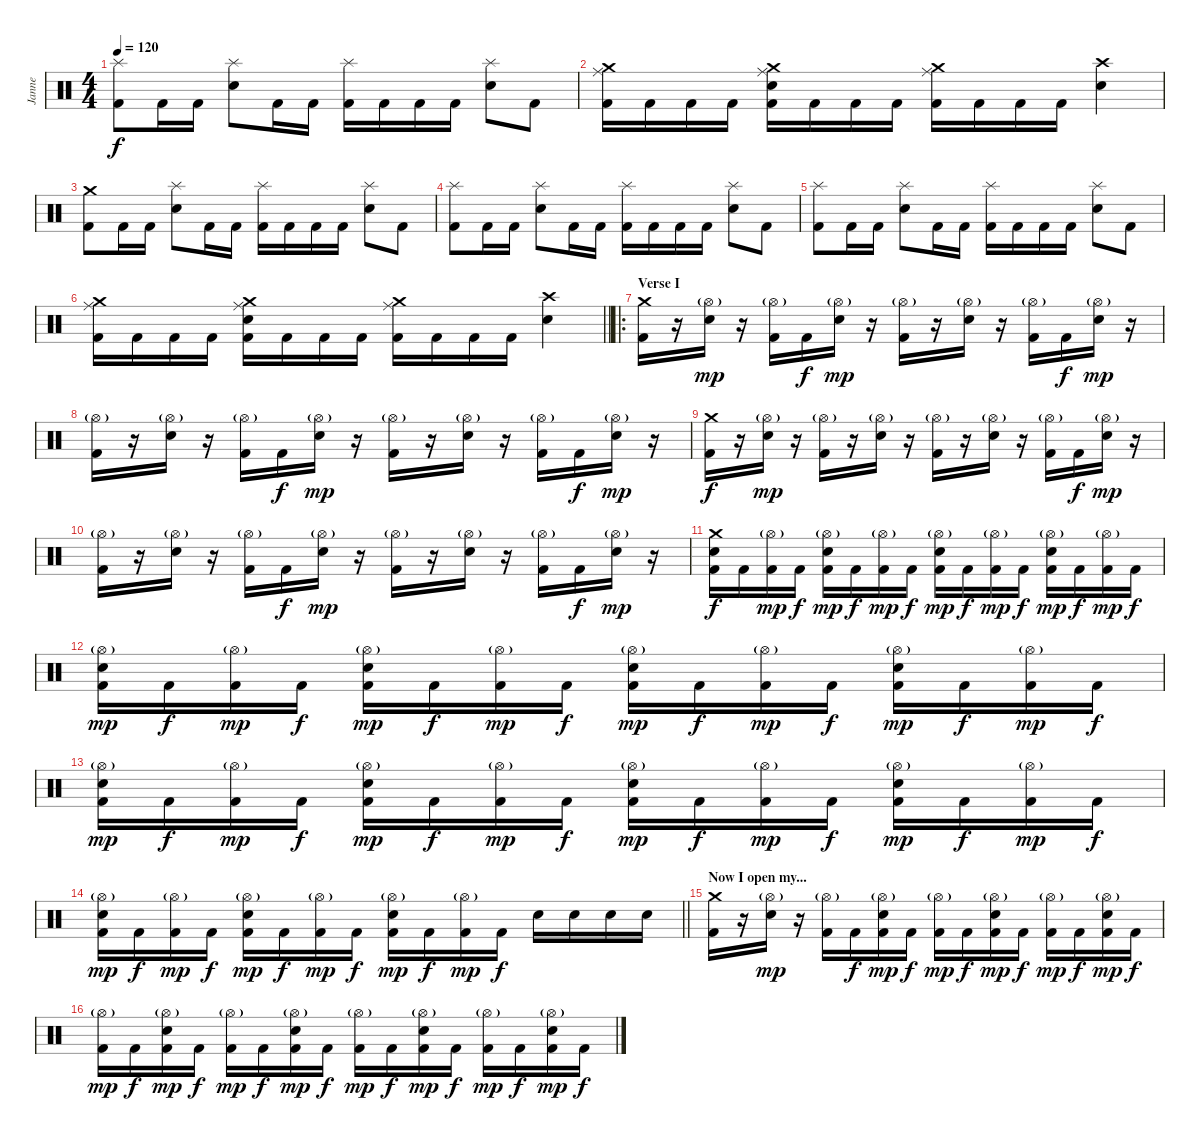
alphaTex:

\track ("Janne" "Janne") {instrument percussion}
\staff {score}
\articulation defaults
\ts (4 4)
\tempo 120
\clef neutral
\ks c
("Kick (hit) 2" "Splash (hit)").8{dy f} "Kick (hit) 2".16 "Kick (hit) 2".16 ("Snare (hit) 2" "Splash (hit)").8 "Kick (hit) 2".16 "Kick (hit) 2".16 ("Kick (hit) 2" "Splash (hit)").16 "Kick (hit) 2".16 "Kick (hit) 2".16 "Kick (hit) 2".16 ("Snare (hit) 2" "Splash (hit)").8 "Kick (hit) 2".8 |
("Kick (hit) 2" "Crash medium (hit)" "Ride (middle)").16 "Kick (hit) 2".16 "Kick (hit) 2".16 "Kick (hit) 2".16 ("Kick (hit) 2" "Snare (hit) 2" "Crash medium (hit)" "Ride (middle)").16 "Kick (hit) 2".16 "Kick (hit) 2".16 "Kick (hit) 2".16 ("Kick (hit) 2" "Crash medium (hit)" "Ride (middle)").16 "Kick (hit) 2".16 "Kick (hit) 2".16 "Kick (hit) 2".16 ("Snare (hit) 2" "Crash high (hit)").4 |
("Kick (hit) 2" "Crash medium (hit)").8 "Kick (hit) 2".16 "Kick (hit) 2".16 ("Snare (hit) 2" "Splash (hit)").8 "Kick (hit) 2".16 "Kick (hit) 2".16 ("Kick (hit) 2" "Splash (hit)").16 "Kick (hit) 2".16 "Kick (hit) 2".16 "Kick (hit) 2".16 ("Snare (hit) 2" "Splash (hit)").8 "Kick (hit) 2".8 |
("Kick (hit) 2" "Splash (hit)").8 "Kick (hit) 2".16 "Kick (hit) 2".16 ("Snare (hit) 2" "Splash (hit)").8 "Kick (hit) 2".16 "Kick (hit) 2".16 ("Kick (hit) 2" "Splash (hit)").16 "Kick (hit) 2".16 "Kick (hit) 2".16 "Kick (hit) 2".16 ("Snare (hit) 2" "Splash (hit)").8 "Kick (hit) 2".8 |
("Kick (hit) 2" "Splash (hit)").8 "Kick (hit) 2".16 "Kick (hit) 2".16 ("Snare (hit) 2" "Splash (hit)").8 "Kick (hit) 2".16 "Kick (hit) 2".16 ("Kick (hit) 2" "Splash (hit)").16 "Kick (hit) 2".16 "Kick (hit) 2".16 "Kick (hit) 2".16 ("Snare (hit) 2" "Splash (hit)").8 "Kick (hit) 2".8 |
\barLineRight lightlight
("Kick (hit) 2" "Crash medium (hit)" "Ride (middle)").16 "Kick (hit) 2".16 "Kick (hit) 2".16 "Kick (hit) 2".16 ("Kick (hit) 2" "Snare (hit) 2" "Crash medium (hit)" "Ride (middle)").16 "Kick (hit) 2".16 "Kick (hit) 2".16 "Kick (hit) 2".16 ("Kick (hit) 2" "Crash medium (hit)" "Ride (middle)").16 "Kick (hit) 2".16 "Kick (hit) 2".16 "Kick (hit) 2".16 ("Snare (hit) 2" "Crash high (hit)").4 |
\ro
\section ("" "Verse I")
("Kick (hit) 2" "Crash medium (hit)").16 r.16 ("Snare (hit) 2" "Hi-Hat (open)"{g}).16{dy mp} r.16 ("Kick (hit) 2" "Hi-Hat (open)"{g}).16 "Kick (hit) 2".16{dy f} ("Snare (hit) 2" "Hi-Hat (open)"{g}).16{dy mp} r.16 ("Kick (hit) 2" "Hi-Hat (open)"{g}).16 r.16 ("Snare (hit) 2" "Hi-Hat (open)"{g}).16 r.16 ("Kick (hit) 2" "Hi-Hat (open)"{g}).16 "Kick (hit) 2".16{dy f} ("Snare (hit) 2" "Hi-Hat (open)"{g}).16{dy mp} r.16 |
("Kick (hit) 2" "Hi-Hat (open)"{g}).16 r.16 ("Snare (hit) 2" "Hi-Hat (open)"{g}).16 r.16 ("Kick (hit) 2" "Hi-Hat (open)"{g}).16 "Kick (hit) 2".16{dy f} ("Snare (hit) 2" "Hi-Hat (open)"{g}).16{dy mp} r.16 ("Kick (hit) 2" "Hi-Hat (open)"{g}).16 r.16 ("Snare (hit) 2" "Hi-Hat (open)"{g}).16 r.16 ("Kick (hit) 2" "Hi-Hat (open)"{g}).16 "Kick (hit) 2".16{dy f} ("Snare (hit) 2" "Hi-Hat (open)"{g}).16{dy mp} r.16 |
("Kick (hit) 2" "Crash medium (hit)").16{dy f} r.16 ("Snare (hit) 2" "Hi-Hat (open)"{g}).16{dy mp} r.16 ("Kick (hit) 2" "Hi-Hat (open)"{g}).16 r.16 ("Snare (hit) 2" "Hi-Hat (open)"{g}).16 r.16 ("Kick (hit) 2" "Hi-Hat (open)"{g}).16 r.16 ("Snare (hit) 2" "Hi-Hat (open)"{g}).16 r.16 ("Kick (hit) 2" "Hi-Hat (open)"{g}).16 "Kick (hit) 2".16{dy f} ("Snare (hit) 2" "Hi-Hat (open)"{g}).16{dy mp} r.16 |
("Kick (hit) 2" "Hi-Hat (open)"{g}).16 r.16 ("Snare (hit) 2" "Hi-Hat (open)"{g}).16 r.16 ("Kick (hit) 2" "Hi-Hat (open)"{g}).16 "Kick (hit) 2".16{dy f} ("Snare (hit) 2" "Hi-Hat (open)"{g}).16{dy mp} r.16 ("Kick (hit) 2" "Hi-Hat (open)"{g}).16 r.16 ("Snare (hit) 2" "Hi-Hat (open)"{g}).16 r.16 ("Kick (hit) 2" "Hi-Hat (open)"{g}).16 "Kick (hit) 2".16{dy f} ("Snare (hit) 2" "Hi-Hat (open)"{g}).16{dy mp} r.16 |
("Kick (hit) 2" "Snare (hit) 2" "Crash medium (hit)").16{dy f} "Kick (hit) 2".16 ("Kick (hit) 2" "Hi-Hat (open)"{g}).16{dy mp} "Kick (hit) 2".16{dy f} ("Kick (hit) 2" "Snare (hit) 2" "Hi-Hat (open)"{g}).16{dy mp} "Kick (hit) 2".16{dy f} ("Kick (hit) 2" "Hi-Hat (open)"{g}).16{dy mp} "Kick (hit) 2".16{dy f} ("Kick (hit) 2" "Snare (hit) 2" "Hi-Hat (open)"{g}).16{dy mp} "Kick (hit) 2".16{dy f} ("Kick (hit) 2" "Hi-Hat (open)"{g}).16{dy mp} "Kick (hit) 2".16{dy f} ("Kick (hit) 2" "Snare (hit) 2" "Hi-Hat (open)"{g}).16{dy mp} "Kick (hit) 2".16{dy f} ("Kick (hit) 2" "Hi-Hat (open)"{g}).16{dy mp} "Kick (hit) 2".16{dy f} |
("Kick (hit) 2" "Snare (hit) 2" "Hi-Hat (open)"{g}).16{dy mp} "Kick (hit) 2".16{dy f} ("Kick (hit) 2" "Hi-Hat (open)"{g}).16{dy mp} "Kick (hit) 2".16{dy f} ("Kick (hit) 2" "Snare (hit) 2" "Hi-Hat (open)"{g}).16{dy mp} "Kick (hit) 2".16{dy f} ("Kick (hit) 2" "Hi-Hat (open)"{g}).16{dy mp} "Kick (hit) 2".16{dy f} ("Kick (hit) 2" "Snare (hit) 2" "Hi-Hat (open)"{g}).16{dy mp} "Kick (hit) 2".16{dy f} ("Kick (hit) 2" "Hi-Hat (open)"{g}).16{dy mp} "Kick (hit) 2".16{dy f} ("Kick (hit) 2" "Snare (hit) 2" "Hi-Hat (open)"{g}).16{dy mp} "Kick (hit) 2".16{dy f} ("Kick (hit) 2" "Hi-Hat (open)"{g}).16{dy mp} "Kick (hit) 2".16{dy f} |
("Kick (hit) 2" "Snare (hit) 2" "Hi-Hat (open)"{g}).16{dy mp} "Kick (hit) 2".16{dy f} ("Kick (hit) 2" "Hi-Hat (open)"{g}).16{dy mp} "Kick (hit) 2".16{dy f} ("Kick (hit) 2" "Snare (hit) 2" "Hi-Hat (open)"{g}).16{dy mp} "Kick (hit) 2".16{dy f} ("Kick (hit) 2" "Hi-Hat (open)"{g}).16{dy mp} "Kick (hit) 2".16{dy f} ("Kick (hit) 2" "Snare (hit) 2" "Hi-Hat (open)"{g}).16{dy mp} "Kick (hit) 2".16{dy f} ("Kick (hit) 2" "Hi-Hat (open)"{g}).16{dy mp} "Kick (hit) 2".16{dy f} ("Kick (hit) 2" "Snare (hit) 2" "Hi-Hat (open)"{g}).16{dy mp} "Kick (hit) 2".16{dy f} ("Kick (hit) 2" "Hi-Hat (open)"{g}).16{dy mp} "Kick (hit) 2".16{dy f} |
\barLineRight lightlight
("Kick (hit) 2" "Snare (hit) 2" "Hi-Hat (open)"{g}).16{dy mp} "Kick (hit) 2".16{dy f} ("Kick (hit) 2" "Hi-Hat (open)"{g}).16{dy mp} "Kick (hit) 2".16{dy f} ("Kick (hit) 2" "Snare (hit) 2" "Hi-Hat (open)"{g}).16{dy mp} "Kick (hit) 2".16{dy f} ("Kick (hit) 2" "Hi-Hat (open)"{g}).16{dy mp} "Kick (hit) 2".16{dy f} ("Kick (hit) 2" "Snare (hit) 2" "Hi-Hat (open)"{g}).16{dy mp} "Kick (hit) 2".16{dy f} ("Kick (hit) 2" "Hi-Hat (open)"{g}).16{dy mp} "Kick (hit) 2".16{dy f} "Snare (hit) 2".16 "Snare (hit) 2".16 "Snare (hit) 2".16 "Snare (hit) 2".16 |
\section ("" "Now I open my...")
("Kick (hit) 2" "Crash medium (hit)").16 r.16 ("Snare (hit) 2" "Hi-Hat (open)"{g}).16{dy mp} r.16 ("Kick (hit) 2" "Hi-Hat (open)"{g}).16 "Kick (hit) 2".16{dy f} ("Kick (hit) 2" "Snare (hit) 2" "Hi-Hat (open)"{g}).16{dy mp} "Kick (hit) 2".16{dy f} ("Kick (hit) 2" "Hi-Hat (open)"{g}).16{dy mp} "Kick (hit) 2".16{dy f} ("Kick (hit) 2" "Snare (hit) 2" "Hi-Hat (open)"{g}).16{dy mp} "Kick (hit) 2".16{dy f} ("Kick (hit) 2" "Hi-Hat (open)"{g}).16{dy mp} "Kick (hit) 2".16{dy f} ("Kick (hit) 2" "Snare (hit) 2" "Hi-Hat (open)"{g}).16{dy mp} "Kick (hit) 2".16{dy f} |
("Kick (hit) 2" "Hi-Hat (open)"{g}).16{dy mp} "Kick (hit) 2".16{dy f} ("Kick (hit) 2" "Snare (hit) 2" "Hi-Hat (open)"{g}).16{dy mp} "Kick (hit) 2".16{dy f} ("Kick (hit) 2" "Hi-Hat (open)"{g}).16{dy mp} "Kick (hit) 2".16{dy f} ("Kick (hit) 2" "Snare (hit) 2" "Hi-Hat (open)"{g}).16{dy mp} "Kick (hit) 2".16{dy f} ("Kick (hit) 2" "Hi-Hat (open)"{g}).16{dy mp} "Kick (hit) 2".16{dy f} ("Kick (hit) 2" "Snare (hit) 2" "Hi-Hat (open)"{g}).16{dy mp} "Kick (hit) 2".16{dy f} ("Kick (hit) 2" "Hi-Hat (open)"{g}).16{dy mp} "Kick (hit) 2".16{dy f} ("Kick (hit) 2" "Snare (hit) 2" "Hi-Hat (open)"{g}).16{dy mp} "Kick (hit) 2".16{dy f}
